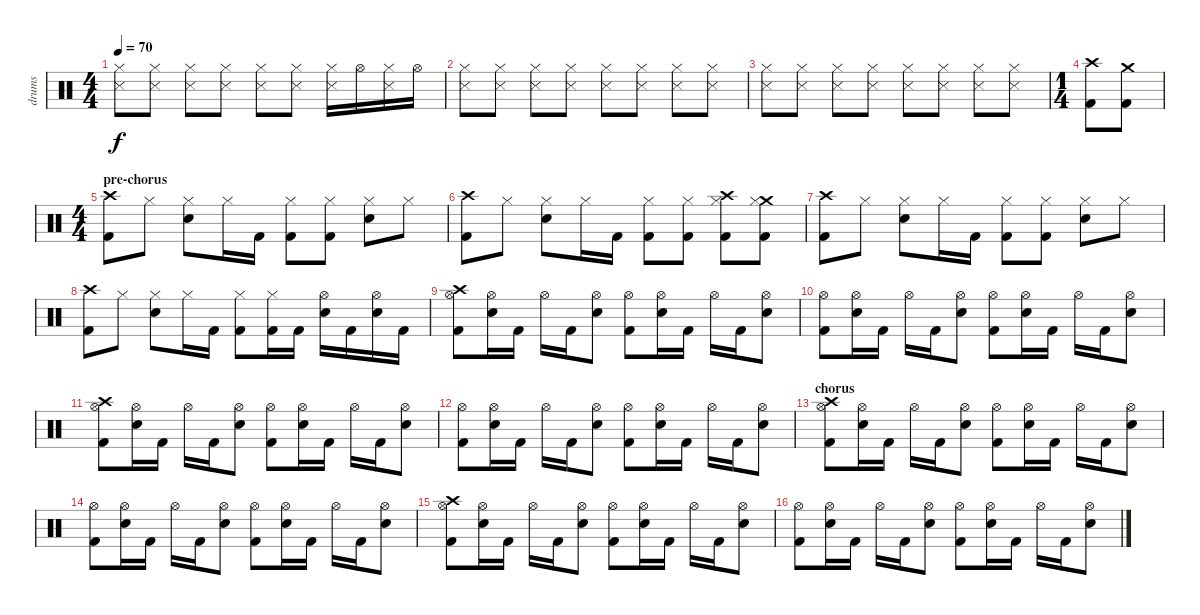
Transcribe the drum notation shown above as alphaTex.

\track ("drums" "drums") {instrument percussion}
\staff {score}
\articulation defaults
\ts (4 4)
\tempo 70
\clef neutral
\ks c
("Snare (side stick) 3" "Hi-Hat (closed)").8{dy f} ("Snare (side stick) 3" "Hi-Hat (closed)").8 ("Snare (side stick) 3" "Hi-Hat (closed)").8 ("Snare (side stick) 3" "Hi-Hat (closed)").8 ("Snare (side stick) 3" "Hi-Hat (closed)").8 ("Snare (side stick) 3" "Hi-Hat (closed)").8 ("Snare (side stick) 3" "Hi-Hat (closed)").16 "Hi-Hat (open)".16 ("Snare (side stick) 3" "Hi-Hat (closed)").16 "Hi-Hat (open)".16 |
("Snare (side stick) 3" "Hi-Hat (closed)").8 ("Snare (side stick) 3" "Hi-Hat (closed)").8 ("Snare (side stick) 3" "Hi-Hat (closed)").8 ("Snare (side stick) 3" "Hi-Hat (closed)").8 ("Snare (side stick) 3" "Hi-Hat (closed)").8 ("Snare (side stick) 3" "Hi-Hat (closed)").8 ("Snare (side stick) 3" "Hi-Hat (closed)").8 ("Snare (side stick) 3" "Hi-Hat (closed)").8 |
("Snare (side stick) 3" "Hi-Hat (closed)").8 ("Snare (side stick) 3" "Hi-Hat (closed)").8 ("Snare (side stick) 3" "Hi-Hat (closed)").8 ("Snare (side stick) 3" "Hi-Hat (closed)").8 ("Snare (side stick) 3" "Hi-Hat (closed)").8 ("Snare (side stick) 3" "Hi-Hat (closed)").8 ("Snare (side stick) 3" "Hi-Hat (closed)").8 ("Snare (side stick) 3" "Hi-Hat (closed)").8 |
\ts (1 4)
("Crash high (hit)" "Kick (hit) 2").8 ("Crash medium (hit)" "Kick (hit) 2").8 |
\ts (4 4)
\section ("" "pre-chorus")
("Crash high (hit)" "Kick (hit) 2").8 "Hi-Hat (closed)".8 ("Hi-Hat (closed)" "Snare (hit) 2").8 "Hi-Hat (closed)".16 "Kick (hit) 2".16 ("Hi-Hat (closed)" "Kick (hit) 2").8 ("Hi-Hat (closed)" "Kick (hit) 2").8 ("Hi-Hat (closed)" "Snare (hit) 2").8 "Hi-Hat (closed)".8 |
("Crash high (hit)" "Kick (hit) 2").8 "Hi-Hat (closed)".8 ("Hi-Hat (closed)" "Snare (hit) 2").8 "Hi-Hat (closed)".16 "Kick (hit) 2".16 ("Hi-Hat (closed)" "Kick (hit) 2").8 ("Hi-Hat (closed)" "Kick (hit) 2").8 ("Crash high (hit)" "Hi-Hat (closed)" "Kick (hit) 2").8 ("Crash medium (hit)" "Hi-Hat (closed)" "Kick (hit) 2").8 |
("Crash high (hit)" "Kick (hit) 2").8 "Hi-Hat (closed)".8 ("Hi-Hat (closed)" "Snare (hit) 2").8 "Hi-Hat (closed)".16 "Kick (hit) 2".16 ("Hi-Hat (closed)" "Kick (hit) 2").8 ("Hi-Hat (closed)" "Kick (hit) 2").8 ("Hi-Hat (closed)" "Snare (hit) 2").8 "Hi-Hat (closed)".8 |
("Crash high (hit)" "Kick (hit) 2").8 "Hi-Hat (closed)".8 ("Hi-Hat (closed)" "Snare (hit) 2").8 "Hi-Hat (closed)".16 "Kick (hit) 2".16 ("Hi-Hat (closed)" "Kick (hit) 2").8 ("Hi-Hat (closed)" "Kick (hit) 2").16 "Kick (hit) 2".16 ("Hi-Hat (open)" "Snare (hit) 2").16 "Kick (hit) 2".16 ("Hi-Hat (open)" "Snare (hit) 2").16 "Kick (hit) 2".16 |
("Crash high (hit)" "Hi-Hat (open)" "Kick (hit) 2").8 ("Hi-Hat (open)" "Snare (hit) 2").16 "Kick (hit) 2".16 "Hi-Hat (open)".16 "Kick (hit) 2".16 ("Hi-Hat (open)" "Snare (hit) 2").8 ("Hi-Hat (open)" "Kick (hit) 2").8 ("Hi-Hat (open)" "Snare (hit) 2").16 "Kick (hit) 2".16 "Hi-Hat (open)".16 "Kick (hit) 2".16 ("Hi-Hat (open)" "Snare (hit) 2").8 |
("Hi-Hat (open)" "Kick (hit) 2").8 ("Hi-Hat (open)" "Snare (hit) 2").16 "Kick (hit) 2".16 "Hi-Hat (open)".16 "Kick (hit) 2".16 ("Hi-Hat (open)" "Snare (hit) 2").8 ("Hi-Hat (open)" "Kick (hit) 2").8 ("Hi-Hat (open)" "Snare (hit) 2").16 "Kick (hit) 2".16 "Hi-Hat (open)".16 "Kick (hit) 2".16 ("Hi-Hat (open)" "Snare (hit) 2").8 |
("Crash high (hit)" "Hi-Hat (open)" "Kick (hit) 2").8 ("Hi-Hat (open)" "Snare (hit) 2").16 "Kick (hit) 2".16 "Hi-Hat (open)".16 "Kick (hit) 2".16 ("Hi-Hat (open)" "Snare (hit) 2").8 ("Hi-Hat (open)" "Kick (hit) 2").8 ("Hi-Hat (open)" "Snare (hit) 2").16 "Kick (hit) 2".16 "Hi-Hat (open)".16 "Kick (hit) 2".16 ("Hi-Hat (open)" "Snare (hit) 2").8 |
("Hi-Hat (open)" "Kick (hit) 2").8 ("Hi-Hat (open)" "Snare (hit) 2").16 "Kick (hit) 2".16 "Hi-Hat (open)".16 "Kick (hit) 2".16 ("Hi-Hat (open)" "Snare (hit) 2").8 ("Hi-Hat (open)" "Kick (hit) 2").8 ("Hi-Hat (open)" "Snare (hit) 2").16 "Kick (hit) 2".16 "Hi-Hat (open)".16 "Kick (hit) 2".16 ("Hi-Hat (open)" "Snare (hit) 2").8 |
\section ("" "chorus")
("Crash high (hit)" "Hi-Hat (open)" "Kick (hit) 2").8 ("Hi-Hat (open)" "Snare (hit) 2").16 "Kick (hit) 2".16 "Hi-Hat (open)".16 "Kick (hit) 2".16 ("Hi-Hat (open)" "Snare (hit) 2").8 ("Hi-Hat (open)" "Kick (hit) 2").8 ("Hi-Hat (open)" "Snare (hit) 2").16 "Kick (hit) 2".16 "Hi-Hat (open)".16 "Kick (hit) 2".16 ("Hi-Hat (open)" "Snare (hit) 2").8 |
("Hi-Hat (open)" "Kick (hit) 2").8 ("Hi-Hat (open)" "Snare (hit) 2").16 "Kick (hit) 2".16 "Hi-Hat (open)".16 "Kick (hit) 2".16 ("Hi-Hat (open)" "Snare (hit) 2").8 ("Hi-Hat (open)" "Kick (hit) 2").8 ("Hi-Hat (open)" "Snare (hit) 2").16 "Kick (hit) 2".16 "Hi-Hat (open)".16 "Kick (hit) 2".16 ("Hi-Hat (open)" "Snare (hit) 2").8 |
("Crash high (hit)" "Hi-Hat (open)" "Kick (hit) 2").8 ("Hi-Hat (open)" "Snare (hit) 2").16 "Kick (hit) 2".16 "Hi-Hat (open)".16 "Kick (hit) 2".16 ("Hi-Hat (open)" "Snare (hit) 2").8 ("Hi-Hat (open)" "Kick (hit) 2").8 ("Hi-Hat (open)" "Snare (hit) 2").16 "Kick (hit) 2".16 "Hi-Hat (open)".16 "Kick (hit) 2".16 ("Hi-Hat (open)" "Snare (hit) 2").8 |
("Hi-Hat (open)" "Kick (hit) 2").8 ("Hi-Hat (open)" "Snare (hit) 2").16 "Kick (hit) 2".16 "Hi-Hat (open)".16 "Kick (hit) 2".16 ("Hi-Hat (open)" "Snare (hit) 2").8 ("Hi-Hat (open)" "Kick (hit) 2").8 ("Hi-Hat (open)" "Snare (hit) 2").16 "Kick (hit) 2".16 "Hi-Hat (open)".16 "Kick (hit) 2".16 ("Hi-Hat (open)" "Snare (hit) 2").8
